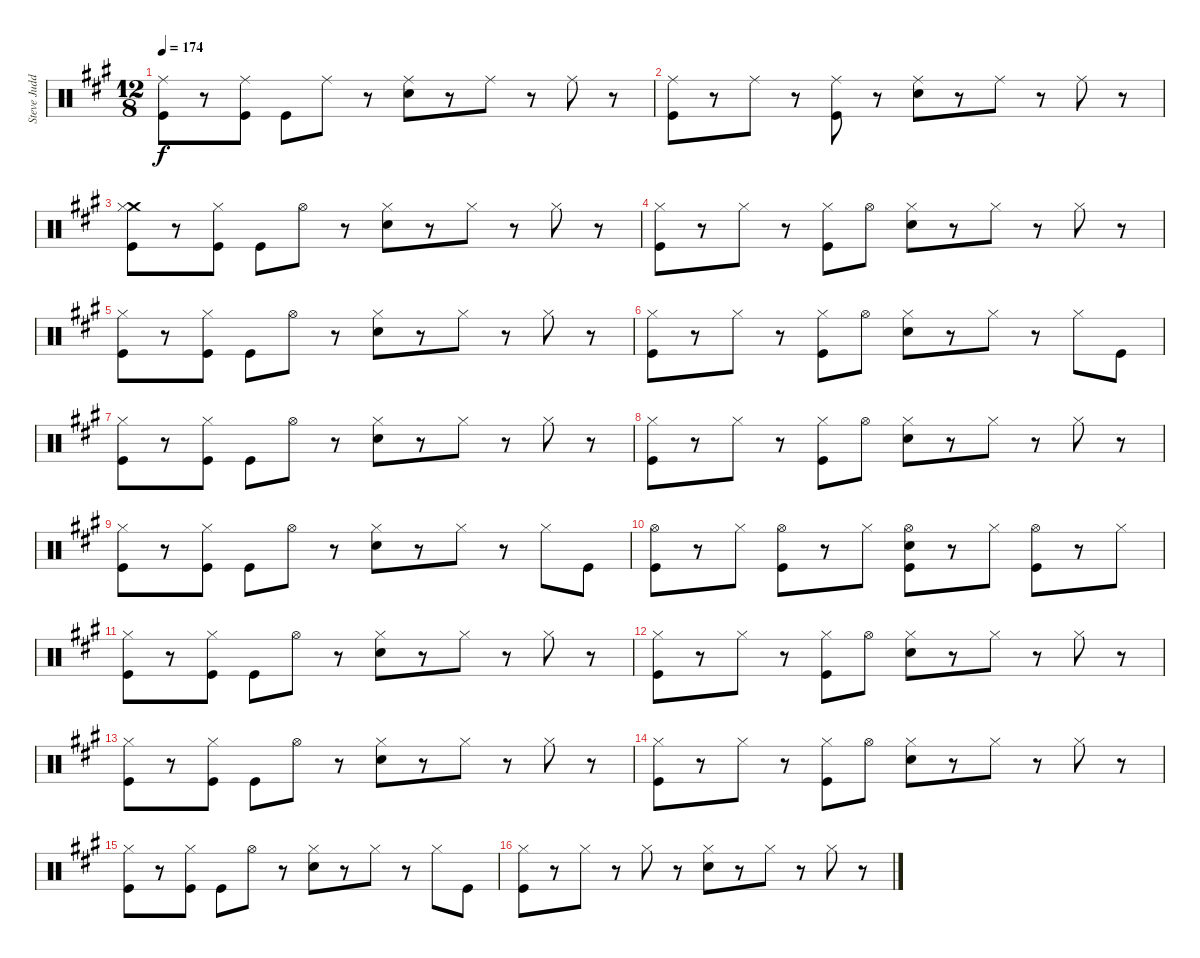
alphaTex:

\track ("Steve Judd (Drums)" "Steve Judd") {instrument percussion}
\staff {score}
\articulation defaults
\ts (12 8)
\tempo 174
\clef neutral
\ks a
("Ride (middle)" "Kick (hit)").8{dy f} r.8 ("Ride (middle)" "Kick (hit)").8 "Kick (hit)".8 "Ride (middle)".8 r.8 ("Snare (hit) 2" "Ride (middle)").8 r.8 "Ride (middle)".8 r.8 "Ride (middle)".8 r.8 |
("Ride (middle)" "Kick (hit)").8 r.8 "Ride (middle)".8 r.8 ("Ride (middle)" "Kick (hit)").8 r.8 ("Snare (hit) 2" "Ride (middle)").8 r.8 "Ride (middle)".8 r.8 "Ride (middle)".8 r.8 |
("Crash medium (hit)" "Hi-Hat (closed)" "Kick (hit)").8 r.8 ("Hi-Hat (closed)" "Kick (hit)").8 "Kick (hit)".8 "Hi-Hat (open)".8 r.8 ("Snare (hit) 2" "Hi-Hat (closed)").8 r.8 "Hi-Hat (closed)".8 r.8 "Hi-Hat (closed)".8 r.8 |
("Hi-Hat (closed)" "Kick (hit)").8 r.8 "Hi-Hat (closed)".8 r.8 ("Hi-Hat (closed)" "Kick (hit)").8 "Hi-Hat (open)".8 ("Snare (hit) 2" "Hi-Hat (closed)").8 r.8 "Hi-Hat (closed)".8 r.8 "Hi-Hat (closed)".8 r.8 |
("Hi-Hat (closed)" "Kick (hit)").8 r.8 ("Hi-Hat (closed)" "Kick (hit)").8 "Kick (hit)".8 "Hi-Hat (open)".8 r.8 ("Snare (hit) 2" "Hi-Hat (closed)").8 r.8 "Hi-Hat (closed)".8 r.8 "Hi-Hat (closed)".8 r.8 |
("Hi-Hat (closed)" "Kick (hit)").8 r.8 "Hi-Hat (closed)".8 r.8 ("Hi-Hat (closed)" "Kick (hit)").8 "Hi-Hat (open)".8 ("Snare (hit) 2" "Hi-Hat (closed)").8 r.8 "Hi-Hat (closed)".8 r.8 "Hi-Hat (closed)".8 "Kick (hit)".8 |
("Hi-Hat (closed)" "Kick (hit)").8 r.8 ("Hi-Hat (closed)" "Kick (hit)").8 "Kick (hit)".8 "Hi-Hat (open)".8 r.8 ("Snare (hit) 2" "Hi-Hat (closed)").8 r.8 "Hi-Hat (closed)".8 r.8 "Hi-Hat (closed)".8 r.8 |
("Hi-Hat (closed)" "Kick (hit)").8 r.8 "Hi-Hat (closed)".8 r.8 ("Hi-Hat (closed)" "Kick (hit)").8 "Hi-Hat (open)".8 ("Snare (hit) 2" "Hi-Hat (closed)").8 r.8 "Hi-Hat (closed)".8 r.8 "Hi-Hat (closed)".8 r.8 |
("Hi-Hat (closed)" "Kick (hit)").8 r.8 ("Hi-Hat (closed)" "Kick (hit)").8 "Kick (hit)".8 "Hi-Hat (open)".8 r.8 ("Snare (hit) 2" "Hi-Hat (closed)").8 r.8 "Hi-Hat (closed)".8 r.8 "Hi-Hat (closed)".8 "Kick (hit)".8 |
("Hi-Hat (open)" "Kick (hit)").8 r.8 "Hi-Hat (closed)".8 ("Hi-Hat (open)" "Kick (hit)").8 r.8 "Hi-Hat (closed)".8 ("Snare (hit) 2" "Hi-Hat (open)" "Kick (hit)").8 r.8 "Hi-Hat (closed)".8 ("Hi-Hat (open)" "Kick (hit)").8 r.8 "Hi-Hat (closed)".8 |
("Hi-Hat (closed)" "Kick (hit)").8 r.8 ("Hi-Hat (closed)" "Kick (hit)").8 "Kick (hit)".8 "Hi-Hat (open)".8 r.8 ("Snare (hit) 2" "Hi-Hat (closed)").8 r.8 "Hi-Hat (closed)".8 r.8 "Hi-Hat (closed)".8 r.8 |
("Hi-Hat (closed)" "Kick (hit)").8 r.8 "Hi-Hat (closed)".8 r.8 ("Hi-Hat (closed)" "Kick (hit)").8 "Hi-Hat (open)".8 ("Snare (hit) 2" "Hi-Hat (closed)").8 r.8 "Hi-Hat (closed)".8 r.8 "Hi-Hat (closed)".8 r.8 |
("Hi-Hat (closed)" "Kick (hit)").8 r.8 ("Hi-Hat (closed)" "Kick (hit)").8 "Kick (hit)".8 "Hi-Hat (open)".8 r.8 ("Snare (hit) 2" "Hi-Hat (closed)").8 r.8 "Hi-Hat (closed)".8 r.8 "Hi-Hat (closed)".8 r.8 |
("Hi-Hat (closed)" "Kick (hit)").8 r.8 "Hi-Hat (closed)".8 r.8 ("Hi-Hat (closed)" "Kick (hit)").8 "Hi-Hat (open)".8 ("Snare (hit) 2" "Hi-Hat (closed)").8 r.8 "Hi-Hat (closed)".8 r.8 "Hi-Hat (closed)".8 r.8 |
("Hi-Hat (closed)" "Kick (hit)").8 r.8 ("Hi-Hat (closed)" "Kick (hit)").8 "Kick (hit)".8 "Hi-Hat (open)".8 r.8 ("Snare (hit) 2" "Hi-Hat (closed)").8 r.8 "Hi-Hat (closed)".8 r.8 "Hi-Hat (closed)".8 "Kick (hit)".8 |
("Hi-Hat (closed)" "Kick (hit)").8 r.8 "Hi-Hat (closed)".8 r.8 "Hi-Hat (closed)".8 r.8 ("Snare (hit) 2" "Hi-Hat (closed)").8 r.8 "Hi-Hat (closed)".8 r.8 "Hi-Hat (closed)".8 r.8
